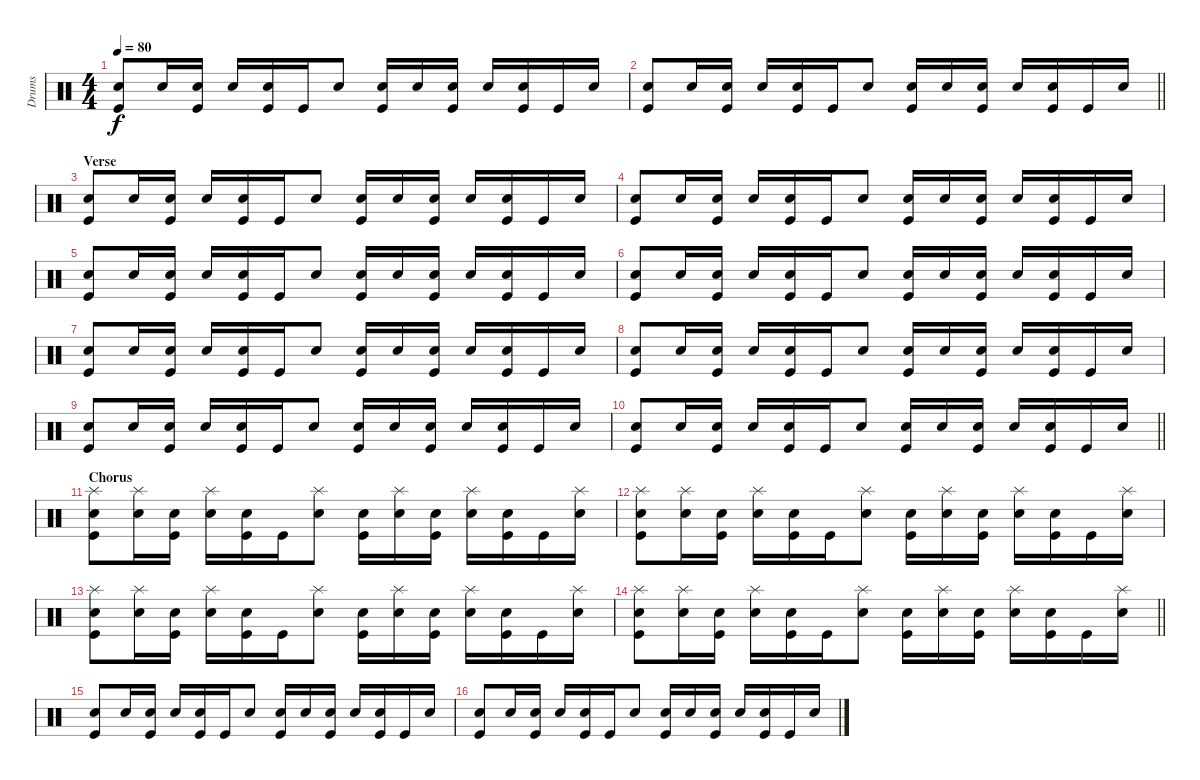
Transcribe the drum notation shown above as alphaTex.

\track ("Drums" "Drums") {instrument percussion}
\staff {score}
\articulation defaults
\ts (4 4)
\tempo 80
\clef neutral
\ks c
("Electric Snare (hit)" "Kick (hit)").8{dy f} "Snare (hit) 2".16 ("Electric Snare (hit)" "Kick (hit)").16 "Snare (hit) 2".16 ("Electric Snare (hit)" "Kick (hit)").16 "Kick (hit)".16 "Snare (hit) 2".8 ("Electric Snare (hit)" "Kick (hit)").16 "Snare (hit) 2".16 ("Electric Snare (hit)" "Kick (hit)").16 "Snare (hit) 2".16 ("Electric Snare (hit)" "Kick (hit)").16 "Kick (hit)".16 "Snare (hit) 2".16 |
\barLineRight lightlight
("Electric Snare (hit)" "Kick (hit)").8 "Snare (hit) 2".16 ("Electric Snare (hit)" "Kick (hit)").16 "Snare (hit) 2".16 ("Electric Snare (hit)" "Kick (hit)").16 "Kick (hit)".16 "Snare (hit) 2".8 ("Electric Snare (hit)" "Kick (hit)").16 "Snare (hit) 2".16 ("Electric Snare (hit)" "Kick (hit)").16 "Snare (hit) 2".16 ("Electric Snare (hit)" "Kick (hit)").16 "Kick (hit)".16 "Snare (hit) 2".16 |
\section ("" "Verse")
("Electric Snare (hit)" "Kick (hit)").8 "Snare (hit) 2".16 ("Electric Snare (hit)" "Kick (hit)").16 "Snare (hit) 2".16 ("Electric Snare (hit)" "Kick (hit)").16 "Kick (hit)".16 "Snare (hit) 2".8 ("Electric Snare (hit)" "Kick (hit)").16 "Snare (hit) 2".16 ("Electric Snare (hit)" "Kick (hit)").16 "Snare (hit) 2".16 ("Electric Snare (hit)" "Kick (hit)").16 "Kick (hit)".16 "Snare (hit) 2".16 |
("Electric Snare (hit)" "Kick (hit)").8 "Snare (hit) 2".16 ("Electric Snare (hit)" "Kick (hit)").16 "Snare (hit) 2".16 ("Electric Snare (hit)" "Kick (hit)").16 "Kick (hit)".16 "Snare (hit) 2".8 ("Electric Snare (hit)" "Kick (hit)").16 "Snare (hit) 2".16 ("Electric Snare (hit)" "Kick (hit)").16 "Snare (hit) 2".16 ("Electric Snare (hit)" "Kick (hit)").16 "Kick (hit)".16 "Snare (hit) 2".16 |
("Electric Snare (hit)" "Kick (hit)").8 "Snare (hit) 2".16 ("Electric Snare (hit)" "Kick (hit)").16 "Snare (hit) 2".16 ("Electric Snare (hit)" "Kick (hit)").16 "Kick (hit)".16 "Snare (hit) 2".8 ("Electric Snare (hit)" "Kick (hit)").16 "Snare (hit) 2".16 ("Electric Snare (hit)" "Kick (hit)").16 "Snare (hit) 2".16 ("Electric Snare (hit)" "Kick (hit)").16 "Kick (hit)".16 "Snare (hit) 2".16 |
("Electric Snare (hit)" "Kick (hit)").8 "Snare (hit) 2".16 ("Electric Snare (hit)" "Kick (hit)").16 "Snare (hit) 2".16 ("Electric Snare (hit)" "Kick (hit)").16 "Kick (hit)".16 "Snare (hit) 2".8 ("Electric Snare (hit)" "Kick (hit)").16 "Snare (hit) 2".16 ("Electric Snare (hit)" "Kick (hit)").16 "Snare (hit) 2".16 ("Electric Snare (hit)" "Kick (hit)").16 "Kick (hit)".16 "Snare (hit) 2".16 |
("Electric Snare (hit)" "Kick (hit)").8 "Snare (hit) 2".16 ("Electric Snare (hit)" "Kick (hit)").16 "Snare (hit) 2".16 ("Electric Snare (hit)" "Kick (hit)").16 "Kick (hit)".16 "Snare (hit) 2".8 ("Electric Snare (hit)" "Kick (hit)").16 "Snare (hit) 2".16 ("Electric Snare (hit)" "Kick (hit)").16 "Snare (hit) 2".16 ("Electric Snare (hit)" "Kick (hit)").16 "Kick (hit)".16 "Snare (hit) 2".16 |
("Electric Snare (hit)" "Kick (hit)").8 "Snare (hit) 2".16 ("Electric Snare (hit)" "Kick (hit)").16 "Snare (hit) 2".16 ("Electric Snare (hit)" "Kick (hit)").16 "Kick (hit)".16 "Snare (hit) 2".8 ("Electric Snare (hit)" "Kick (hit)").16 "Snare (hit) 2".16 ("Electric Snare (hit)" "Kick (hit)").16 "Snare (hit) 2".16 ("Electric Snare (hit)" "Kick (hit)").16 "Kick (hit)".16 "Snare (hit) 2".16 |
("Electric Snare (hit)" "Kick (hit)").8 "Snare (hit) 2".16 ("Electric Snare (hit)" "Kick (hit)").16 "Snare (hit) 2".16 ("Electric Snare (hit)" "Kick (hit)").16 "Kick (hit)".16 "Snare (hit) 2".8 ("Electric Snare (hit)" "Kick (hit)").16 "Snare (hit) 2".16 ("Electric Snare (hit)" "Kick (hit)").16 "Snare (hit) 2".16 ("Electric Snare (hit)" "Kick (hit)").16 "Kick (hit)".16 "Snare (hit) 2".16 |
\barLineRight lightlight
("Electric Snare (hit)" "Kick (hit)").8 "Snare (hit) 2".16 ("Electric Snare (hit)" "Kick (hit)").16 "Snare (hit) 2".16 ("Electric Snare (hit)" "Kick (hit)").16 "Kick (hit)".16 "Snare (hit) 2".8 ("Electric Snare (hit)" "Kick (hit)").16 "Snare (hit) 2".16 ("Electric Snare (hit)" "Kick (hit)").16 "Snare (hit) 2".16 ("Electric Snare (hit)" "Kick (hit)").16 "Kick (hit)".16 "Snare (hit) 2".16 |
\section ("" "Chorus")
("Splash (hit)" "Electric Snare (hit)" "Kick (hit)").8 ("Splash (hit)" "Snare (hit) 2").16 ("Electric Snare (hit)" "Kick (hit)").16 ("Splash (hit)" "Snare (hit) 2").16 ("Electric Snare (hit)" "Kick (hit)").16 "Kick (hit)".16 ("Splash (hit)" "Snare (hit) 2").8 ("Electric Snare (hit)" "Kick (hit)").16 ("Splash (hit)" "Snare (hit) 2").16 ("Electric Snare (hit)" "Kick (hit)").16 ("Splash (hit)" "Snare (hit) 2").16 ("Electric Snare (hit)" "Kick (hit)").16 "Kick (hit)".16 ("Splash (hit)" "Snare (hit) 2").16 |
("Splash (hit)" "Electric Snare (hit)" "Kick (hit)").8 ("Splash (hit)" "Snare (hit) 2").16 ("Electric Snare (hit)" "Kick (hit)").16 ("Splash (hit)" "Snare (hit) 2").16 ("Electric Snare (hit)" "Kick (hit)").16 "Kick (hit)".16 ("Splash (hit)" "Snare (hit) 2").8 ("Electric Snare (hit)" "Kick (hit)").16 ("Splash (hit)" "Snare (hit) 2").16 ("Electric Snare (hit)" "Kick (hit)").16 ("Splash (hit)" "Snare (hit) 2").16 ("Electric Snare (hit)" "Kick (hit)").16 "Kick (hit)".16 ("Splash (hit)" "Snare (hit) 2").16 |
("Splash (hit)" "Electric Snare (hit)" "Kick (hit)").8 ("Splash (hit)" "Snare (hit) 2").16 ("Electric Snare (hit)" "Kick (hit)").16 ("Splash (hit)" "Snare (hit) 2").16 ("Electric Snare (hit)" "Kick (hit)").16 "Kick (hit)".16 ("Splash (hit)" "Snare (hit) 2").8 ("Electric Snare (hit)" "Kick (hit)").16 ("Splash (hit)" "Snare (hit) 2").16 ("Electric Snare (hit)" "Kick (hit)").16 ("Splash (hit)" "Snare (hit) 2").16 ("Electric Snare (hit)" "Kick (hit)").16 "Kick (hit)".16 ("Splash (hit)" "Snare (hit) 2").16 |
\barLineRight lightlight
("Splash (hit)" "Electric Snare (hit)" "Kick (hit)").8 ("Splash (hit)" "Snare (hit) 2").16 ("Electric Snare (hit)" "Kick (hit)").16 ("Splash (hit)" "Snare (hit) 2").16 ("Electric Snare (hit)" "Kick (hit)").16 "Kick (hit)".16 ("Splash (hit)" "Snare (hit) 2").8 ("Electric Snare (hit)" "Kick (hit)").16 ("Splash (hit)" "Snare (hit) 2").16 ("Electric Snare (hit)" "Kick (hit)").16 ("Splash (hit)" "Snare (hit) 2").16 ("Electric Snare (hit)" "Kick (hit)").16 "Kick (hit)".16 ("Splash (hit)" "Snare (hit) 2").16 |
("Electric Snare (hit)" "Kick (hit)").8 "Snare (hit) 2".16 ("Electric Snare (hit)" "Kick (hit)").16 "Snare (hit) 2".16 ("Electric Snare (hit)" "Kick (hit)").16 "Kick (hit)".16 "Snare (hit) 2".8 ("Electric Snare (hit)" "Kick (hit)").16 "Snare (hit) 2".16 ("Electric Snare (hit)" "Kick (hit)").16 "Snare (hit) 2".16 ("Electric Snare (hit)" "Kick (hit)").16 "Kick (hit)".16 "Snare (hit) 2".16 |
("Electric Snare (hit)" "Kick (hit)").8 "Snare (hit) 2".16 ("Electric Snare (hit)" "Kick (hit)").16 "Snare (hit) 2".16 ("Electric Snare (hit)" "Kick (hit)").16 "Kick (hit)".16 "Snare (hit) 2".8 ("Electric Snare (hit)" "Kick (hit)").16 "Snare (hit) 2".16 ("Electric Snare (hit)" "Kick (hit)").16 "Snare (hit) 2".16 ("Electric Snare (hit)" "Kick (hit)").16 "Kick (hit)".16 "Snare (hit) 2".16
